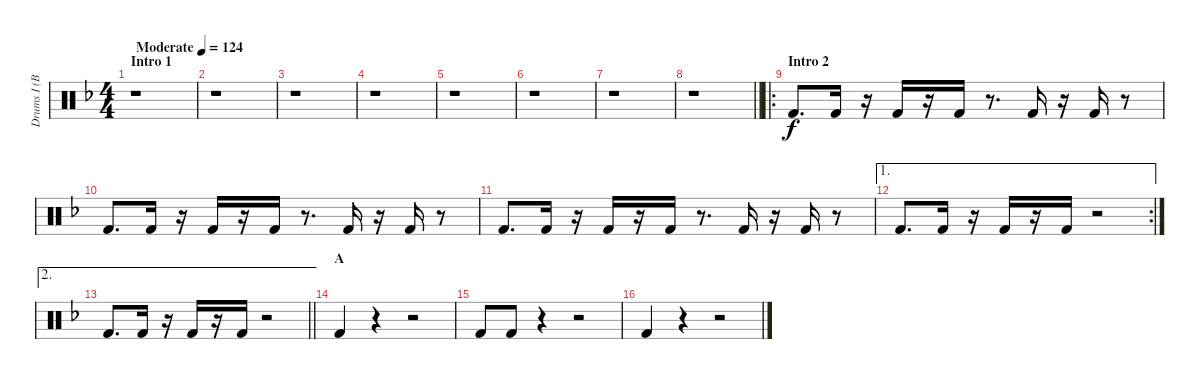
\track ("Drums I (Bass Drums) (RUKA)" "Drums I (B") {instrument percussion}
\staff {score}
\articulation defaults
\ts (4 4)
\section ("" "Intro 1")
\tempo (124 "Moderate")
\clef neutral
\ks f
r.1{dy f} |
r.1 |
r.1 |
r.1 |
r.1 |
r.1 |
r.1 |
\barLineRight lightlight
r.1 |
\ro
\section ("" "Intro 2")
"Kick (hit) 2".8{d} "Kick (hit) 2".16 r.16 "Kick (hit) 2".16 r.16 "Kick (hit) 2".16 r.8{d} "Kick (hit) 2".16 r.16 "Kick (hit) 2".16 r.8 |
"Kick (hit) 2".8{d} "Kick (hit) 2".16 r.16 "Kick (hit) 2".16 r.16 "Kick (hit) 2".16 r.8{d} "Kick (hit) 2".16 r.16 "Kick (hit) 2".16 r.8 |
"Kick (hit) 2".8{d} "Kick (hit) 2".16 r.16 "Kick (hit) 2".16 r.16 "Kick (hit) 2".16 r.8{d} "Kick (hit) 2".16 r.16 "Kick (hit) 2".16 r.8 |
\ae 1
\rc 2 "Kick (hit) 2".8{d} "Kick (hit) 2".16
r.16 "Kick (hit) 2".16 r.16 "Kick (hit) 2".16 r.2 |
\ae 2
\barLineRight lightlight "Kick (hit) 2".8{d} "Kick (hit) 2".16
r.16 "Kick (hit) 2".16 r.16 "Kick (hit) 2".16 r.2 |
\section ("" "A")
"Kick (hit) 2".4 r.4 r.2 |
"Kick (hit) 2".8 "Kick (hit) 2".8 r.4 r.2 |
"Kick (hit) 2".4 r.4 r.2
